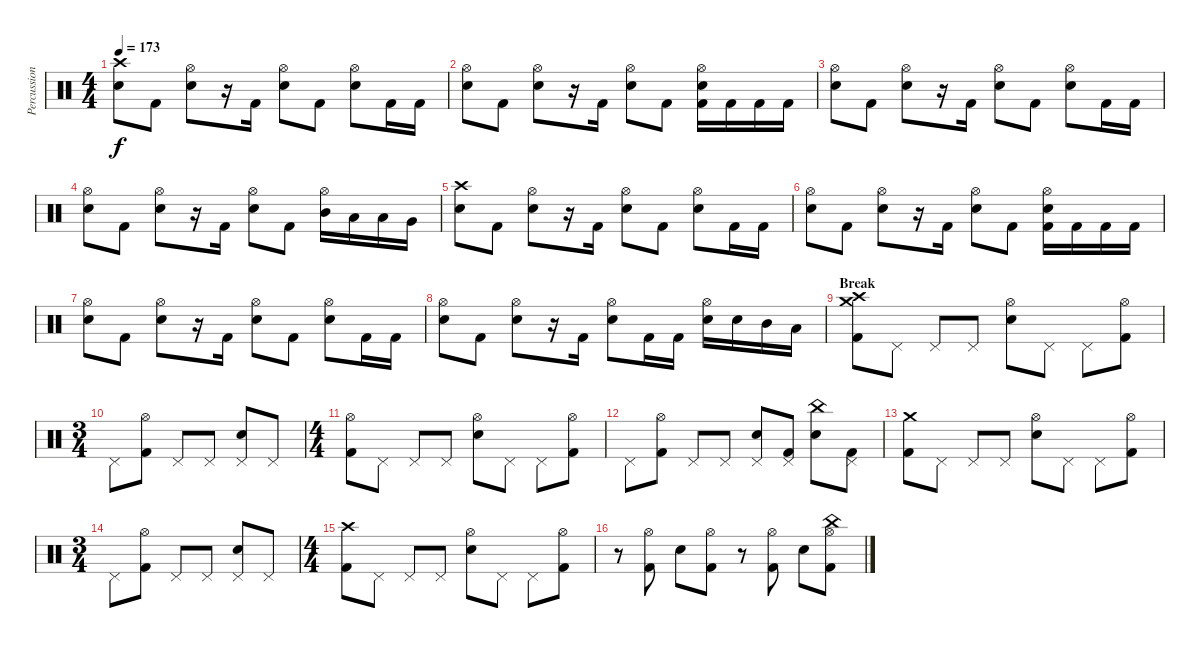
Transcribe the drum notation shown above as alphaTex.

\track ("Percussions" "Percussion") {instrument percussion}
\staff {score}
\articulation defaults
\ts (4 4)
\tempo 173
\clef neutral
\ks c
("Crash high (hit)" "Electric Snare (hit)").8{dy f} "Kick (hit) 2".8 ("Hi-Hat (open)" "Electric Snare (hit)").8 r.16 "Kick (hit) 2".16 ("Hi-Hat (open)" "Electric Snare (hit)").8 "Kick (hit) 2".8 ("Hi-Hat (open)" "Electric Snare (hit)").8 "Kick (hit) 2".16 "Kick (hit) 2".16 |
("Hi-Hat (open)" "Electric Snare (hit)").8 "Kick (hit) 2".8 ("Hi-Hat (open)" "Electric Snare (hit)").8 r.16 "Kick (hit) 2".16 ("Hi-Hat (open)" "Electric Snare (hit)").8 "Kick (hit) 2".8 ("Hi-Hat (open)" "Electric Snare (hit)" "Kick (hit) 2").16 "Kick (hit) 2".16 "Kick (hit) 2".16 "Kick (hit) 2".16 |
("Hi-Hat (open)" "Electric Snare (hit)").8 "Kick (hit) 2".8 ("Hi-Hat (open)" "Electric Snare (hit)").8 r.16 "Kick (hit) 2".16 ("Hi-Hat (open)" "Electric Snare (hit)").8 "Kick (hit) 2".8 ("Hi-Hat (open)" "Electric Snare (hit)").8 "Kick (hit) 2".16 "Kick (hit) 2".16 |
("Hi-Hat (open)" "Electric Snare (hit)").8 "Kick (hit) 2".8 ("Hi-Hat (open)" "Electric Snare (hit)").8 r.16 "Kick (hit) 2".16 ("Hi-Hat (open)" "Electric Snare (hit)").8 "Kick (hit) 2".8 ("Hi-Hat (open)" "Mid Tom (hit)").16 "Low Tom (hit)".16 "Low Tom (hit)".16 "Very Low Tom (hit)".16 |
("Crash high (hit)" "Electric Snare (hit)").8 "Kick (hit) 2".8 ("Hi-Hat (open)" "Electric Snare (hit)").8 r.16 "Kick (hit) 2".16 ("Hi-Hat (open)" "Electric Snare (hit)").8 "Kick (hit) 2".8 ("Hi-Hat (open)" "Electric Snare (hit)").8 "Kick (hit) 2".16 "Kick (hit) 2".16 |
("Hi-Hat (open)" "Electric Snare (hit)").8 "Kick (hit) 2".8 ("Hi-Hat (open)" "Electric Snare (hit)").8 r.16 "Kick (hit) 2".16 ("Hi-Hat (open)" "Electric Snare (hit)").8 "Kick (hit) 2".8 ("Hi-Hat (open)" "Electric Snare (hit)" "Kick (hit) 2").16 "Kick (hit) 2".16 "Kick (hit) 2".16 "Kick (hit) 2".16 |
("Hi-Hat (open)" "Electric Snare (hit)").8 "Kick (hit) 2".8 ("Hi-Hat (open)" "Electric Snare (hit)").8 r.16 "Kick (hit) 2".16 ("Hi-Hat (open)" "Electric Snare (hit)").8 "Kick (hit) 2".8 ("Hi-Hat (open)" "Electric Snare (hit)").8 "Kick (hit) 2".16 "Kick (hit) 2".16 |
("Hi-Hat (open)" "Electric Snare (hit)").8 "Kick (hit) 2".8 ("Hi-Hat (open)" "Electric Snare (hit)").8 r.16 "Kick (hit) 2".16 ("Hi-Hat (open)" "Electric Snare (hit)").8 "Kick (hit) 2".16 "Kick (hit) 2".16 ("Hi-Hat (open)" "Electric Snare (hit)").16 "Electric Snare (hit)".16 "Mid Tom (hit)".16 "Low Tom (hit)".16 |
\section ("" "Break")
("Crash high (hit)" "Crash medium (hit)" "Kick (hit) 2").8 "Pedal Hi-Hat (hit)".8 "Pedal Hi-Hat (hit)".8 "Pedal Hi-Hat (hit)".8 ("Hi-Hat (open)" "Electric Snare (hit)").8 "Pedal Hi-Hat (hit)".8 "Pedal Hi-Hat (hit)".8 ("Hi-Hat (open)" "Kick (hit) 2").8 |
\ts (3 4)
"Pedal Hi-Hat (hit)".8 ("Hi-Hat (open)" "Kick (hit) 2").8 "Pedal Hi-Hat (hit)".8 "Pedal Hi-Hat (hit)".8 ("Pedal Hi-Hat (hit)" "Electric Snare (hit)").8 "Pedal Hi-Hat (hit)".8 |
\ts (4 4)
("Hi-Hat (open)" "Kick (hit) 2").8 "Pedal Hi-Hat (hit)".8 "Pedal Hi-Hat (hit)".8 "Pedal Hi-Hat (hit)".8 ("Hi-Hat (open)" "Electric Snare (hit)").8 "Pedal Hi-Hat (hit)".8 "Pedal Hi-Hat (hit)".8 ("Hi-Hat (open)" "Kick (hit) 2").8 |
"Pedal Hi-Hat (hit)".8 ("Hi-Hat (open)" "Kick (hit) 2").8 "Pedal Hi-Hat (hit)".8 "Pedal Hi-Hat (hit)".8 ("Pedal Hi-Hat (hit)" "Electric Snare (hit)").8 ("Pedal Hi-Hat (hit)" "Kick (hit) 2").8 ("China (hit)" "Electric Snare (hit)").8 ("Pedal Hi-Hat (hit)" "Kick (hit) 2").8 |
("Crash medium (hit)" "Kick (hit) 2").8 "Pedal Hi-Hat (hit)".8 "Pedal Hi-Hat (hit)".8 "Pedal Hi-Hat (hit)".8 ("Hi-Hat (open)" "Electric Snare (hit)").8 "Pedal Hi-Hat (hit)".8 "Pedal Hi-Hat (hit)".8 ("Hi-Hat (open)" "Kick (hit) 2").8 |
\ts (3 4)
"Pedal Hi-Hat (hit)".8 ("Hi-Hat (open)" "Kick (hit) 2").8 "Pedal Hi-Hat (hit)".8 "Pedal Hi-Hat (hit)".8 ("Pedal Hi-Hat (hit)" "Electric Snare (hit)").8 "Pedal Hi-Hat (hit)".8 |
\ts (4 4)
("Crash high (hit)" "Kick (hit) 2").8 "Pedal Hi-Hat (hit)".8 "Pedal Hi-Hat (hit)".8 "Pedal Hi-Hat (hit)".8 ("Hi-Hat (open)" "Electric Snare (hit)").8 "Pedal Hi-Hat (hit)".8 "Pedal Hi-Hat (hit)".8 ("Hi-Hat (open)" "Kick (hit) 2").8 |
r.8 ("Hi-Hat (open)" "Kick (hit) 2").8 "Electric Snare (hit)".8 ("Hi-Hat (open)" "Kick (hit) 2").8 r.8 ("Hi-Hat (open)" "Kick (hit) 2").8 "Electric Snare (hit)".8 ("China (hit)" "Hi-Hat (open)" "Kick (hit) 2").8
